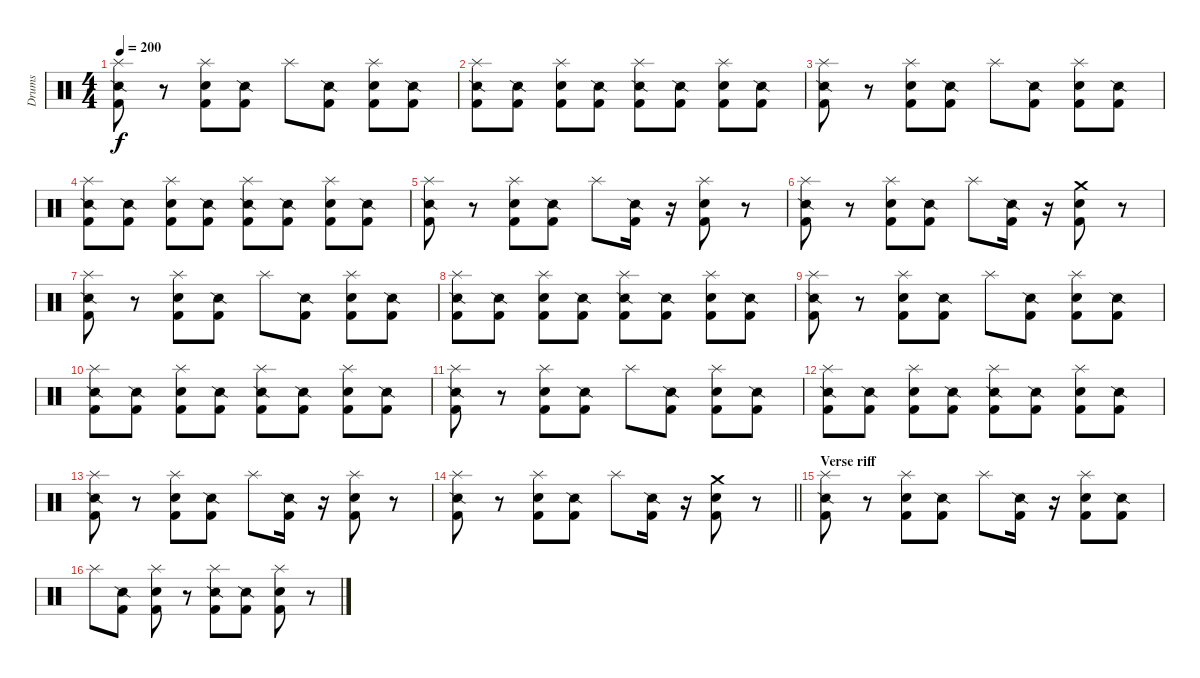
\track ("Drums" "Drums") {instrument percussion}
\staff {score}
\articulation defaults
\ts (4 4)
\tempo 200
\clef neutral
\ks c
("Splash (hit)" "Snare (side stick) 2" "Kick (hit) 2").8{dy f} r.8 ("Splash (hit)" "Snare (hit) 2" "Kick (hit) 2").8 ("Snare (side stick) 2" "Kick (hit) 2").8 "Splash (hit)".8 ("Snare (side stick) 2" "Kick (hit) 2").8 ("Splash (hit)" "Snare (hit) 2" "Kick (hit) 2").8 ("Snare (side stick) 2" "Kick (hit) 2").8 |
("Splash (hit)" "Snare (side stick) 2" "Kick (hit) 2").8 ("Snare (side stick) 2" "Kick (hit) 2").8 ("Splash (hit)" "Snare (hit) 2" "Kick (hit) 2").8 ("Snare (side stick) 2" "Kick (hit) 2").8 ("Splash (hit)" "Snare (side stick) 2" "Kick (hit) 2").8 ("Snare (side stick) 2" "Kick (hit) 2").8 ("Splash (hit)" "Snare (hit) 2" "Kick (hit) 2").8 ("Snare (side stick) 2" "Kick (hit) 2").8 |
("Splash (hit)" "Snare (side stick) 2" "Kick (hit) 2").8 r.8 ("Splash (hit)" "Snare (hit) 2" "Kick (hit) 2").8 ("Snare (side stick) 2" "Kick (hit) 2").8 "Splash (hit)".8 ("Snare (side stick) 2" "Kick (hit) 2").8 ("Splash (hit)" "Snare (hit) 2" "Kick (hit) 2").8 ("Snare (side stick) 2" "Kick (hit) 2").8 |
("Splash (hit)" "Snare (side stick) 2" "Kick (hit) 2").8 ("Snare (side stick) 2" "Kick (hit) 2").8 ("Splash (hit)" "Snare (hit) 2" "Kick (hit) 2").8 ("Snare (side stick) 2" "Kick (hit) 2").8 ("Splash (hit)" "Snare (side stick) 2" "Kick (hit) 2").8 ("Snare (side stick) 2" "Kick (hit) 2").8 ("Splash (hit)" "Snare (hit) 2" "Kick (hit) 2").8 ("Snare (side stick) 2" "Kick (hit) 2").8 |
("Splash (hit)" "Snare (side stick) 2" "Kick (hit) 2").8 r.8 ("Splash (hit)" "Snare (hit) 2" "Kick (hit) 2").8 ("Snare (side stick) 2" "Kick (hit) 2").8 "Splash (hit)".8 ("Snare (side stick) 2" "Kick (hit) 2").16 r.16 ("Splash (hit)" "Snare (hit) 2" "Kick (hit) 2").8 r.8 |
("Splash (hit)" "Snare (side stick) 2" "Kick (hit) 2").8 r.8 ("Splash (hit)" "Snare (hit) 2" "Kick (hit) 2").8 ("Snare (side stick) 2" "Kick (hit) 2").8 "Splash (hit)".8 ("Snare (side stick) 2" "Kick (hit) 2").16 r.16 ("Crash medium (hit)" "Snare (hit) 2" "Kick (hit) 2").8 r.8 |
("Splash (hit)" "Snare (side stick) 2" "Kick (hit) 2").8 r.8 ("Splash (hit)" "Snare (hit) 2" "Kick (hit) 2").8 ("Snare (side stick) 2" "Kick (hit) 2").8 "Splash (hit)".8 ("Snare (side stick) 2" "Kick (hit) 2").8 ("Splash (hit)" "Snare (hit) 2" "Kick (hit) 2").8 ("Snare (side stick) 2" "Kick (hit) 2").8 |
("Splash (hit)" "Snare (side stick) 2" "Kick (hit) 2").8 ("Snare (side stick) 2" "Kick (hit) 2").8 ("Splash (hit)" "Snare (hit) 2" "Kick (hit) 2").8 ("Snare (side stick) 2" "Kick (hit) 2").8 ("Splash (hit)" "Snare (side stick) 2" "Kick (hit) 2").8 ("Snare (side stick) 2" "Kick (hit) 2").8 ("Splash (hit)" "Snare (hit) 2" "Kick (hit) 2").8 ("Snare (side stick) 2" "Kick (hit) 2").8 |
("Splash (hit)" "Snare (side stick) 2" "Kick (hit) 2").8 r.8 ("Splash (hit)" "Snare (hit) 2" "Kick (hit) 2").8 ("Snare (side stick) 2" "Kick (hit) 2").8 "Splash (hit)".8 ("Snare (side stick) 2" "Kick (hit) 2").8 ("Splash (hit)" "Snare (hit) 2" "Kick (hit) 2").8 ("Snare (side stick) 2" "Kick (hit) 2").8 |
("Splash (hit)" "Snare (side stick) 2" "Kick (hit) 2").8 ("Snare (side stick) 2" "Kick (hit) 2").8 ("Splash (hit)" "Snare (hit) 2" "Kick (hit) 2").8 ("Snare (side stick) 2" "Kick (hit) 2").8 ("Splash (hit)" "Snare (side stick) 2" "Kick (hit) 2").8 ("Snare (side stick) 2" "Kick (hit) 2").8 ("Splash (hit)" "Snare (hit) 2" "Kick (hit) 2").8 ("Snare (side stick) 2" "Kick (hit) 2").8 |
("Splash (hit)" "Snare (side stick) 2" "Kick (hit) 2").8 r.8 ("Splash (hit)" "Snare (hit) 2" "Kick (hit) 2").8 ("Snare (side stick) 2" "Kick (hit) 2").8 "Splash (hit)".8 ("Snare (side stick) 2" "Kick (hit) 2").8 ("Splash (hit)" "Snare (hit) 2" "Kick (hit) 2").8 ("Snare (side stick) 2" "Kick (hit) 2").8 |
("Splash (hit)" "Snare (side stick) 2" "Kick (hit) 2").8 ("Snare (side stick) 2" "Kick (hit) 2").8 ("Splash (hit)" "Snare (hit) 2" "Kick (hit) 2").8 ("Snare (side stick) 2" "Kick (hit) 2").8 ("Splash (hit)" "Snare (side stick) 2" "Kick (hit) 2").8 ("Snare (side stick) 2" "Kick (hit) 2").8 ("Splash (hit)" "Snare (hit) 2" "Kick (hit) 2").8 ("Snare (side stick) 2" "Kick (hit) 2").8 |
("Splash (hit)" "Snare (side stick) 2" "Kick (hit) 2").8 r.8 ("Splash (hit)" "Snare (hit) 2" "Kick (hit) 2").8 ("Snare (side stick) 2" "Kick (hit) 2").8 "Splash (hit)".8 ("Snare (side stick) 2" "Kick (hit) 2").16 r.16 ("Splash (hit)" "Snare (hit) 2" "Kick (hit) 2").8 r.8 |
\barLineRight lightlight
("Splash (hit)" "Snare (side stick) 2" "Kick (hit) 2").8 r.8 ("Splash (hit)" "Snare (hit) 2" "Kick (hit) 2").8 ("Snare (side stick) 2" "Kick (hit) 2").8 "Splash (hit)".8 ("Snare (side stick) 2" "Kick (hit) 2").16 r.16 ("Crash medium (hit)" "Snare (hit) 2" "Kick (hit) 2").8 r.8 |
\section ("" "Verse riff")
("Splash (hit)" "Snare (side stick) 2" "Kick (hit) 2").8 r.8 ("Splash (hit)" "Snare (hit) 2" "Kick (hit) 2").8 ("Snare (side stick) 2" "Kick (hit) 2").8 "Splash (hit)".8 ("Snare (side stick) 2" "Kick (hit) 2").16 r.16 ("Splash (hit)" "Snare (hit) 2" "Kick (hit) 2").8 ("Snare (side stick) 2" "Kick (hit) 2").8 |
"Splash (hit)".8 ("Snare (side stick) 2" "Kick (hit) 2").8 ("Splash (hit)" "Snare (hit) 2" "Kick (hit) 2").8 r.8 ("Splash (hit)" "Snare (side stick) 2" "Kick (hit) 2").8 ("Snare (side stick) 2" "Kick (hit) 2").8 ("Splash (hit)" "Snare (hit) 2" "Kick (hit) 2").8 r.8
